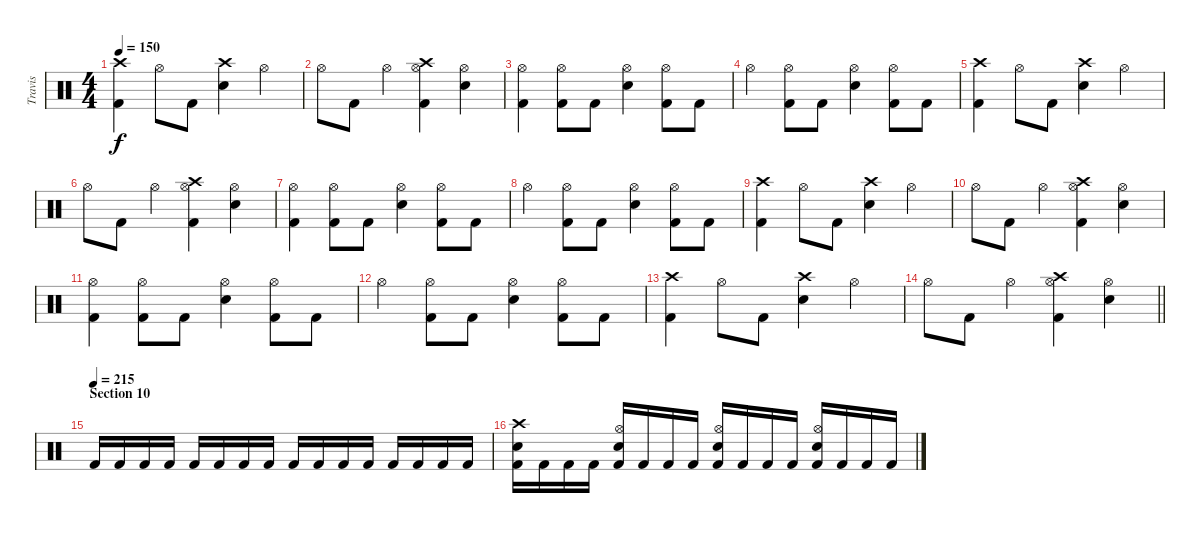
\track ("Travis" "Travis") {instrument percussion}
\staff {score}
\articulation defaults
\ts (4 4)
\tempo 150
\clef neutral
\ks c
("Crash high (hit)" "Kick (hit) 2").4{dy f} "Hi-Hat (open)".8 "Kick (hit) 2".8 ("Crash high (hit)" "Snare (hit) 2").4 "Hi-Hat (open)".4 |
"Hi-Hat (open)".8 "Kick (hit) 2".8 "Hi-Hat (open)".4 ("Crash high (hit)" "Hi-Hat (open)" "Kick (hit) 2").4 ("Hi-Hat (open)" "Snare (hit) 2").4 |
("Hi-Hat (open)" "Kick (hit) 2").4 ("Hi-Hat (open)" "Kick (hit) 2").8 "Kick (hit) 2".8 ("Hi-Hat (open)" "Snare (hit) 2").4 ("Hi-Hat (open)" "Kick (hit) 2").8 "Kick (hit) 2".8 |
"Hi-Hat (open)".4 ("Hi-Hat (open)" "Kick (hit) 2").8 "Kick (hit) 2".8 ("Hi-Hat (open)" "Snare (hit) 2").4 ("Hi-Hat (open)" "Kick (hit) 2").8 "Kick (hit) 2".8 |
("Crash high (hit)" "Kick (hit) 2").4 "Hi-Hat (open)".8 "Kick (hit) 2".8 ("Crash high (hit)" "Snare (hit) 2").4 "Hi-Hat (open)".4 |
"Hi-Hat (open)".8 "Kick (hit) 2".8 "Hi-Hat (open)".4 ("Crash high (hit)" "Hi-Hat (open)" "Kick (hit) 2").4 ("Hi-Hat (open)" "Snare (hit) 2").4 |
("Hi-Hat (open)" "Kick (hit) 2").4 ("Hi-Hat (open)" "Kick (hit) 2").8 "Kick (hit) 2".8 ("Hi-Hat (open)" "Snare (hit) 2").4 ("Hi-Hat (open)" "Kick (hit) 2").8 "Kick (hit) 2".8 |
"Hi-Hat (open)".4 ("Hi-Hat (open)" "Kick (hit) 2").8 "Kick (hit) 2".8 ("Hi-Hat (open)" "Snare (hit) 2").4 ("Hi-Hat (open)" "Kick (hit) 2").8 "Kick (hit) 2".8 |
("Crash high (hit)" "Kick (hit) 2").4 "Hi-Hat (open)".8 "Kick (hit) 2".8 ("Crash high (hit)" "Snare (hit) 2").4 "Hi-Hat (open)".4 |
"Hi-Hat (open)".8 "Kick (hit) 2".8 "Hi-Hat (open)".4 ("Crash high (hit)" "Hi-Hat (open)" "Kick (hit) 2").4 ("Hi-Hat (open)" "Snare (hit) 2").4 |
("Hi-Hat (open)" "Kick (hit) 2").4 ("Hi-Hat (open)" "Kick (hit) 2").8 "Kick (hit) 2".8 ("Hi-Hat (open)" "Snare (hit) 2").4 ("Hi-Hat (open)" "Kick (hit) 2").8 "Kick (hit) 2".8 |
"Hi-Hat (open)".4 ("Hi-Hat (open)" "Kick (hit) 2").8 "Kick (hit) 2".8 ("Hi-Hat (open)" "Snare (hit) 2").4 ("Hi-Hat (open)" "Kick (hit) 2").8 "Kick (hit) 2".8 |
("Crash high (hit)" "Kick (hit) 2").4 "Hi-Hat (open)".8 "Kick (hit) 2".8 ("Crash high (hit)" "Snare (hit) 2").4 "Hi-Hat (open)".4 |
\barLineRight lightlight "Hi-Hat (open)".8 "Kick (hit) 2".8 "Hi-Hat (open)".4
("Crash high (hit)" "Hi-Hat (open)" "Kick (hit) 2").4 ("Hi-Hat (open)" "Snare (hit) 2").4 |
\section ("" "Section 10")
\tempo (215)
"Kick (hit) 2".16 "Kick (hit) 2".16 "Kick (hit) 2".16 "Kick (hit) 2".16 "Kick (hit) 2".16 "Kick (hit) 2".16 "Kick (hit) 2".16 "Kick (hit) 2".16 "Kick (hit) 2".16 "Kick (hit) 2".16 "Kick (hit) 2".16 "Kick (hit) 2".16 "Kick (hit) 2".16 "Kick (hit) 2".16 "Kick (hit) 2".16 "Kick (hit) 2".16 |
("Crash high (hit)" "Snare (hit) 2" "Kick (hit) 2").16 "Kick (hit) 2".16 "Kick (hit) 2".16 "Kick (hit) 2".16 ("Hi-Hat (open)" "Snare (hit) 2" "Kick (hit) 2").16 "Kick (hit) 2".16 "Kick (hit) 2".16 "Kick (hit) 2".16 ("Hi-Hat (open)" "Snare (hit) 2" "Kick (hit) 2").16 "Kick (hit) 2".16 "Kick (hit) 2".16 "Kick (hit) 2".16 ("Hi-Hat (open)" "Snare (hit) 2" "Kick (hit) 2").16 "Kick (hit) 2".16 "Kick (hit) 2".16 "Kick (hit) 2".16
